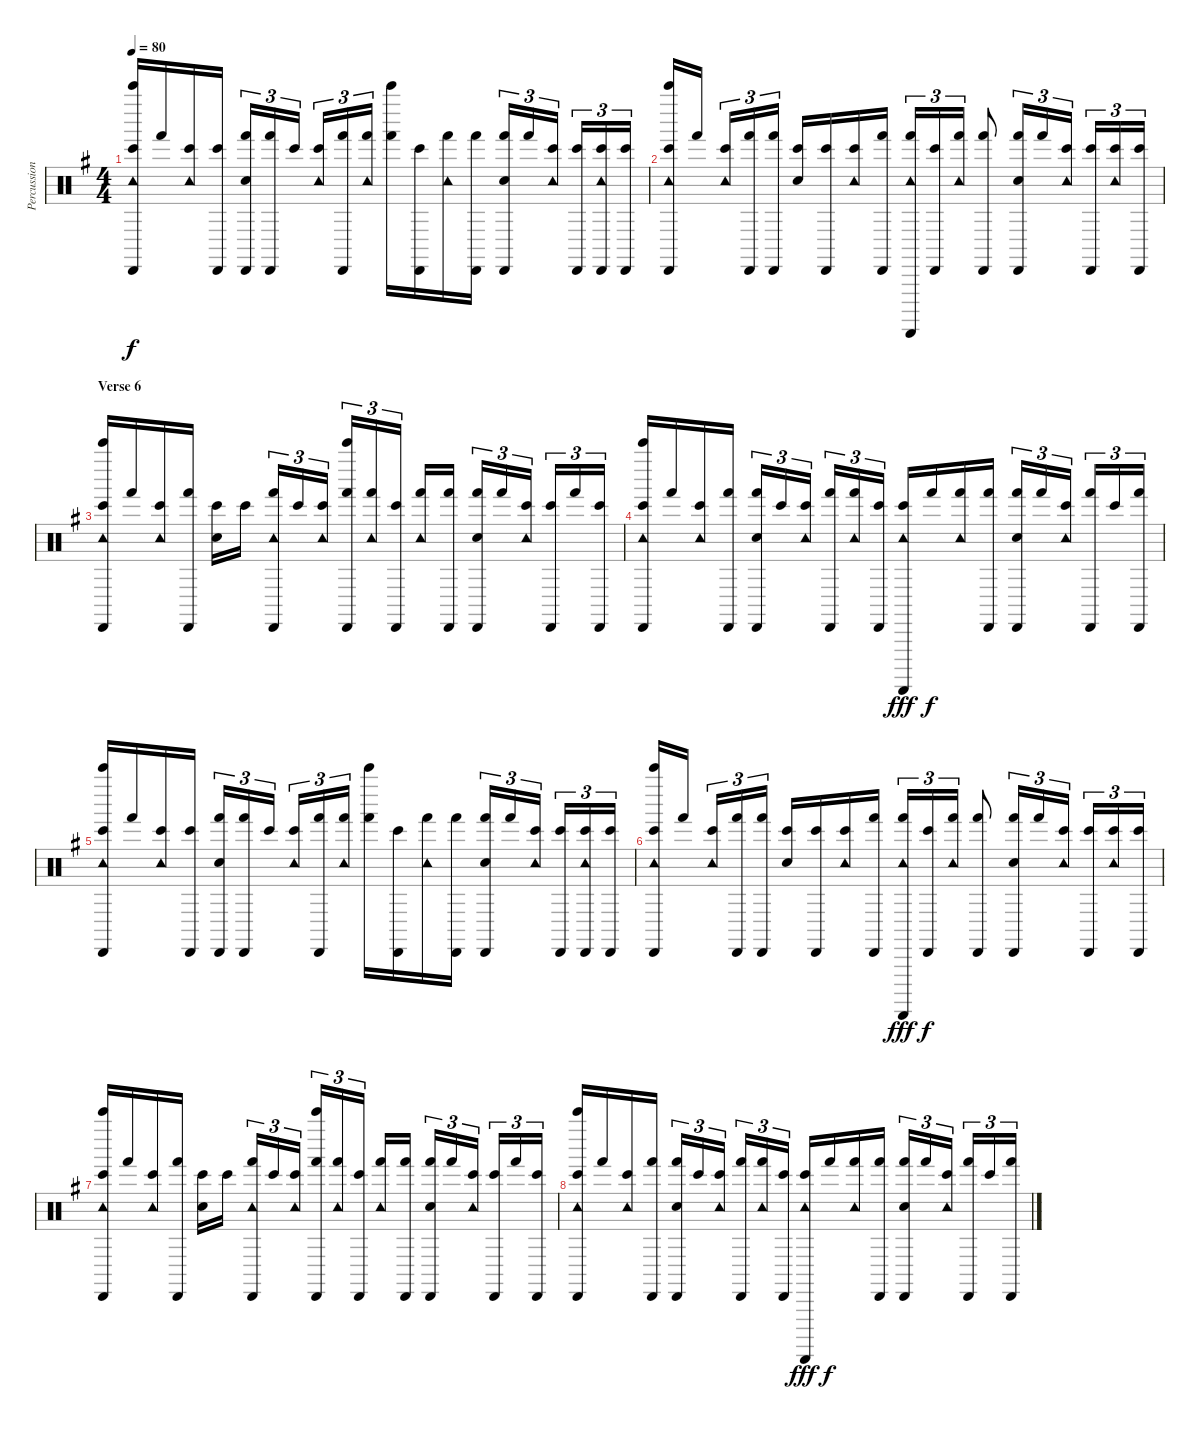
\track ("Percussion" "Percussion") {instrument percussion}
\staff {score}
\articulation defaults
\ts (4 4)
\tempo 80
\clef neutral
\ks g
("Cabasa (hit)" "Bell Tree (hit)" "Tambourine (hit)" "Bongo High (hit)").16{dy f} "Hand (hit)".16 ("Tambourine (hit)" "Bongo High (hit)").16 ("Cabasa (hit)" "Bongo High (hit)").16 ("Cabasa (hit)" "Hand Clap (hit)" "Hand (hit)").16{tu (3 2)} ("Cabasa (hit)" "Hand (hit)").16{tu (3 2)} "Bongo High (hit)".16{tu (3 2)} ("Tambourine (hit)" "Bongo High (hit)").16{tu (3 2)} ("Cabasa (hit)" "Hand (hit)").16{tu (3 2)} ("Tambourine (hit)" "Hand (hit)").16{tu (3 2)} ("Bell Tree (hit)" "Hand (hit)").16 ("Cabasa (hit)" "Bongo High (hit)").16 ("Tambourine (hit)" "Hand (hit)").16 ("Cabasa (hit)" "Hand (hit)").16 ("Cabasa (hit)" "Hand Clap (hit)" "Hand (hit)").16{tu (3 2)} "Hand (hit)".16{tu (3 2)} ("Tambourine (hit)" "Bongo High (hit)").16{tu (3 2)} ("Cabasa (hit)" "Bongo High (hit)").16{tu (3 2)} ("Cabasa (hit)" "Tambourine (hit)" "Bongo High (hit)").16{tu (3 2)} ("Cabasa (hit)" "Bongo High (hit)").16{tu (3 2)} |
("Cabasa (hit)" "Bell Tree (hit)" "Tambourine (hit)" "Bongo High (hit)").16 "Hand (hit)".16 ("Tambourine (hit)" "Bongo High (hit)").16{tu (3 2)} ("Cabasa (hit)" "Hand (hit)").16{tu (3 2)} ("Cabasa (hit)" "Hand (hit)").16{tu (3 2)} ("Hand Clap (hit)" "Bongo High (hit)").16 ("Cabasa (hit)" "Bongo High (hit)").16 ("Tambourine (hit)" "Bongo High (hit)").16 ("Cabasa (hit)" "Hand (hit)").16 ("Guiro (scrap-return)" "Tambourine (hit)" "Hand (hit)").16{tu (3 2)} ("Cabasa (hit)" "Bongo High (hit)").16{tu (3 2)} ("Tambourine (hit)" "Hand (hit)").16{tu (3 2)} ("Cabasa (hit)" "Hand (hit)").8 ("Cabasa (hit)" "Hand Clap (hit)" "Hand (hit)").16{tu (3 2)} "Hand (hit)".16{tu (3 2)} ("Tambourine (hit)" "Bongo High (hit)").16{tu (3 2)} ("Cabasa (hit)" "Bongo High (hit)").16{tu (3 2)} ("Tambourine (hit)" "Bongo High (hit)").16{tu (3 2)} ("Cabasa (hit)" "Bongo High (hit)").16{tu (3 2)} |
\section ("" "Verse 6")
("Cabasa (hit)" "Bell Tree (hit)" "Tambourine (hit)" "Bongo High (hit)").16 "Hand (hit)".16 ("Tambourine (hit)" "Bongo High (hit)").16 ("Cabasa (hit)" "Hand (hit)").16 ("Hand Clap (hit)" "Bongo High (hit)").16 "Bongo High (hit)".16 ("Cabasa (hit)" "Tambourine (hit)" "Hand (hit)").16{tu (3 2)} "Bongo High (hit)".16{tu (3 2)} ("Tambourine (hit)" "Bongo High (hit)").16{tu (3 2)} ("Cabasa (hit)" "Bell Tree (hit)" "Hand (hit)").16{tu (3 2)} ("Tambourine (hit)" "Hand (hit)").16{tu (3 2)} ("Cabasa (hit)" "Bongo High (hit)").16{tu (3 2)} ("Tambourine (hit)" "Hand (hit)").16 ("Cabasa (hit)" "Hand (hit)").16 ("Cabasa (hit)" "Hand Clap (hit)" "Hand (hit)").16{tu (3 2)} "Hand (hit)".16{tu (3 2)} ("Tambourine (hit)" "Bongo High (hit)").16{tu (3 2)} ("Cabasa (hit)" "Bongo High (hit)").16{tu (3 2)} "Hand (hit)".16{tu (3 2)} ("Cabasa (hit)" "Bongo High (hit)").16{tu (3 2)} |
("Cabasa (hit)" "Bell Tree (hit)" "Tambourine (hit)" "Bongo High (hit)").16 "Hand (hit)".16 ("Tambourine (hit)" "Bongo High (hit)").16 ("Cabasa (hit)" "Hand (hit)").16 ("Cabasa (hit)" "Hand Clap (hit)" "Hand (hit)").16{tu (3 2)} "Bongo High (hit)".16{tu (3 2)} ("Tambourine (hit)" "Bongo High (hit)").16{tu (3 2)} ("Cabasa (hit)" "Hand (hit)").16{tu (3 2)} ("Tambourine (hit)" "Hand (hit)").16{tu (3 2)} ("Cabasa (hit)" "Bongo High (hit)").16{tu (3 2)} ("Guiro (scrap-return)" "Tambourine (hit)" "Bongo High (hit)").16{dy fff} "Hand (hit)".16{dy f} ("Tambourine (hit)" "Hand (hit)").16 ("Cabasa (hit)" "Hand (hit)").16 ("Cabasa (hit)" "Hand Clap (hit)" "Hand (hit)").16{tu (3 2)} "Hand (hit)".16{tu (3 2)} ("Tambourine (hit)" "Bongo High (hit)").16{tu (3 2)} ("Cabasa (hit)" "Hand (hit)").16{tu (3 2)} "Bongo High (hit)".16{tu (3 2)} ("Cabasa (hit)" "Hand (hit)").16{tu (3 2)} |
("Cabasa (hit)" "Bell Tree (hit)" "Tambourine (hit)" "Bongo High (hit)").16 "Hand (hit)".16 ("Tambourine (hit)" "Bongo High (hit)").16 ("Cabasa (hit)" "Bongo High (hit)").16 ("Cabasa (hit)" "Hand Clap (hit)" "Hand (hit)").16{tu (3 2)} ("Cabasa (hit)" "Hand (hit)").16{tu (3 2)} "Bongo High (hit)".16{tu (3 2)} ("Tambourine (hit)" "Bongo High (hit)").16{tu (3 2)} ("Cabasa (hit)" "Hand (hit)").16{tu (3 2)} ("Tambourine (hit)" "Hand (hit)").16{tu (3 2)} ("Bell Tree (hit)" "Hand (hit)").16 ("Cabasa (hit)" "Bongo High (hit)").16 ("Tambourine (hit)" "Hand (hit)").16 ("Cabasa (hit)" "Hand (hit)").16 ("Cabasa (hit)" "Hand Clap (hit)" "Hand (hit)").16{tu (3 2)} "Hand (hit)".16{tu (3 2)} ("Tambourine (hit)" "Bongo High (hit)").16{tu (3 2)} ("Cabasa (hit)" "Bongo High (hit)").16{tu (3 2)} ("Cabasa (hit)" "Tambourine (hit)" "Bongo High (hit)").16{tu (3 2)} ("Cabasa (hit)" "Bongo High (hit)").16{tu (3 2)} |
("Cabasa (hit)" "Bell Tree (hit)" "Tambourine (hit)" "Bongo High (hit)").16 "Hand (hit)".16 ("Tambourine (hit)" "Bongo High (hit)").16{tu (3 2)} ("Cabasa (hit)" "Hand (hit)").16{tu (3 2)} ("Cabasa (hit)" "Hand (hit)").16{tu (3 2)} ("Hand Clap (hit)" "Bongo High (hit)").16 ("Cabasa (hit)" "Bongo High (hit)").16 ("Tambourine (hit)" "Bongo High (hit)").16 ("Cabasa (hit)" "Hand (hit)").16 ("Guiro (scrap-return)" "Tambourine (hit)" "Hand (hit)").16{tu (3 2) dy fff} ("Cabasa (hit)" "Bongo High (hit)").16{tu (3 2) dy f} ("Tambourine (hit)" "Hand (hit)").16{tu (3 2)} ("Cabasa (hit)" "Hand (hit)").8 ("Cabasa (hit)" "Hand Clap (hit)" "Hand (hit)").16{tu (3 2)} "Hand (hit)".16{tu (3 2)} ("Tambourine (hit)" "Bongo High (hit)").16{tu (3 2)} ("Cabasa (hit)" "Bongo High (hit)").16{tu (3 2)} ("Tambourine (hit)" "Bongo High (hit)").16{tu (3 2)} ("Cabasa (hit)" "Bongo High (hit)").16{tu (3 2)} |
("Cabasa (hit)" "Bell Tree (hit)" "Tambourine (hit)" "Bongo High (hit)").16 "Hand (hit)".16 ("Tambourine (hit)" "Bongo High (hit)").16 ("Cabasa (hit)" "Hand (hit)").16 ("Hand Clap (hit)" "Bongo High (hit)").16 "Bongo High (hit)".16 ("Cabasa (hit)" "Tambourine (hit)" "Hand (hit)").16{tu (3 2)} "Bongo High (hit)".16{tu (3 2)} ("Tambourine (hit)" "Bongo High (hit)").16{tu (3 2)} ("Cabasa (hit)" "Bell Tree (hit)" "Hand (hit)").16{tu (3 2)} ("Tambourine (hit)" "Hand (hit)").16{tu (3 2)} ("Cabasa (hit)" "Bongo High (hit)").16{tu (3 2)} ("Tambourine (hit)" "Hand (hit)").16 ("Cabasa (hit)" "Hand (hit)").16 ("Cabasa (hit)" "Hand Clap (hit)" "Hand (hit)").16{tu (3 2)} "Hand (hit)".16{tu (3 2)} ("Tambourine (hit)" "Bongo High (hit)").16{tu (3 2)} ("Cabasa (hit)" "Bongo High (hit)").16{tu (3 2)} "Hand (hit)".16{tu (3 2)} ("Cabasa (hit)" "Bongo High (hit)").16{tu (3 2)} |
("Cabasa (hit)" "Bell Tree (hit)" "Tambourine (hit)" "Bongo High (hit)").16 "Hand (hit)".16 ("Tambourine (hit)" "Bongo High (hit)").16 ("Cabasa (hit)" "Hand (hit)").16 ("Cabasa (hit)" "Hand Clap (hit)" "Hand (hit)").16{tu (3 2)} "Bongo High (hit)".16{tu (3 2)} ("Tambourine (hit)" "Bongo High (hit)").16{tu (3 2)} ("Cabasa (hit)" "Hand (hit)").16{tu (3 2)} ("Tambourine (hit)" "Hand (hit)").16{tu (3 2)} ("Cabasa (hit)" "Bongo High (hit)").16{tu (3 2)} ("Guiro (scrap-return)" "Tambourine (hit)" "Bongo High (hit)").16{dy fff} "Hand (hit)".16{dy f} ("Tambourine (hit)" "Hand (hit)").16 ("Cabasa (hit)" "Hand (hit)").16 ("Cabasa (hit)" "Hand Clap (hit)" "Hand (hit)").16{tu (3 2)} "Hand (hit)".16{tu (3 2)} ("Tambourine (hit)" "Bongo High (hit)").16{tu (3 2)} ("Cabasa (hit)" "Hand (hit)").16{tu (3 2)} "Bongo High (hit)".16{tu (3 2)} ("Cabasa (hit)" "Hand (hit)").16{tu (3 2)}
